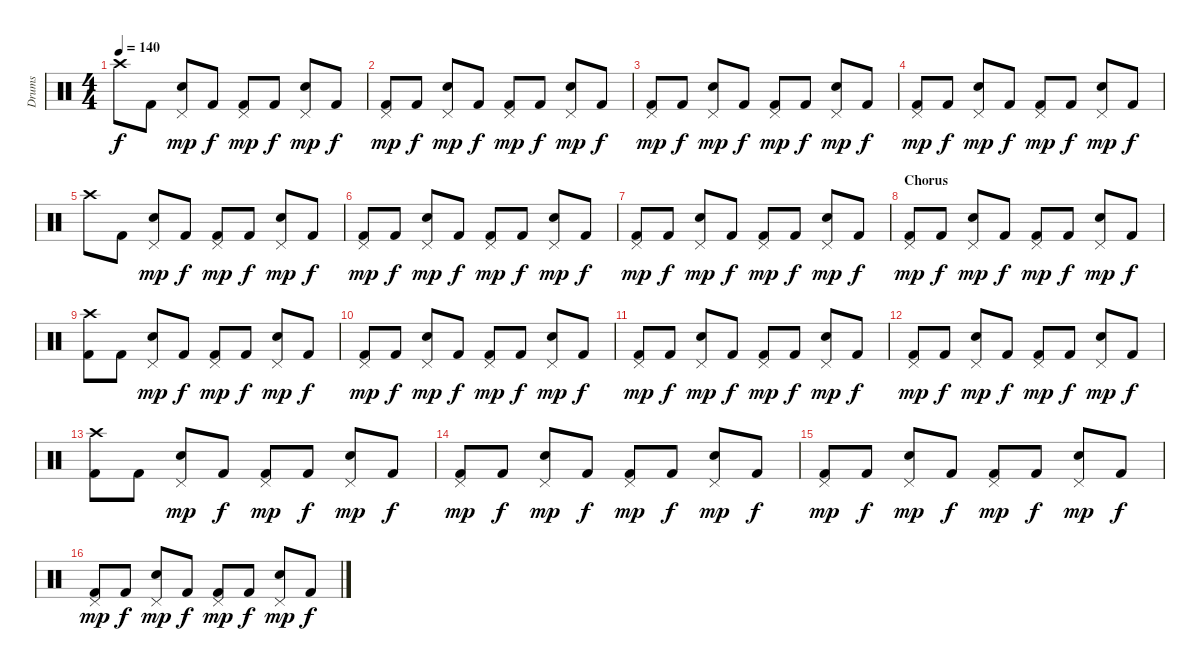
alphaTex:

\track ("Drums" "Drums") {instrument percussion}
\staff {score}
\articulation defaults
\ts (4 4)
\tempo 140
\clef neutral
\ks c "Crash high (hit)".8{dy f} "Kick (hit) 2".8
("Pedal Hi-Hat (hit)" "Snare (hit) 2").8{dy mp} "Kick (hit) 2".8{dy f} ("Pedal Hi-Hat (hit)" "Kick (hit) 2").8{dy mp} "Kick (hit) 2".8{dy f} ("Pedal Hi-Hat (hit)" "Snare (hit) 2").8{dy mp} "Kick (hit) 2".8{dy f} |
("Pedal Hi-Hat (hit)" "Kick (hit) 2").8{dy mp} "Kick (hit) 2".8{dy f} ("Pedal Hi-Hat (hit)" "Snare (hit) 2").8{dy mp} "Kick (hit) 2".8{dy f} ("Pedal Hi-Hat (hit)" "Kick (hit) 2").8{dy mp} "Kick (hit) 2".8{dy f} ("Pedal Hi-Hat (hit)" "Snare (hit) 2").8{dy mp} "Kick (hit) 2".8{dy f} |
("Pedal Hi-Hat (hit)" "Kick (hit) 2").8{dy mp} "Kick (hit) 2".8{dy f} ("Pedal Hi-Hat (hit)" "Snare (hit) 2").8{dy mp} "Kick (hit) 2".8{dy f} ("Pedal Hi-Hat (hit)" "Kick (hit) 2").8{dy mp} "Kick (hit) 2".8{dy f} ("Pedal Hi-Hat (hit)" "Snare (hit) 2").8{dy mp} "Kick (hit) 2".8{dy f} |
("Pedal Hi-Hat (hit)" "Kick (hit) 2").8{dy mp} "Kick (hit) 2".8{dy f} ("Pedal Hi-Hat (hit)" "Snare (hit) 2").8{dy mp} "Kick (hit) 2".8{dy f} ("Pedal Hi-Hat (hit)" "Kick (hit) 2").8{dy mp} "Kick (hit) 2".8{dy f} ("Pedal Hi-Hat (hit)" "Snare (hit) 2").8{dy mp} "Kick (hit) 2".8{dy f} |
"Crash high (hit)".8 "Kick (hit) 2".8 ("Pedal Hi-Hat (hit)" "Snare (hit) 2").8{dy mp} "Kick (hit) 2".8{dy f} ("Pedal Hi-Hat (hit)" "Kick (hit) 2").8{dy mp} "Kick (hit) 2".8{dy f} ("Pedal Hi-Hat (hit)" "Snare (hit) 2").8{dy mp} "Kick (hit) 2".8{dy f} |
("Pedal Hi-Hat (hit)" "Kick (hit) 2").8{dy mp} "Kick (hit) 2".8{dy f} ("Pedal Hi-Hat (hit)" "Snare (hit) 2").8{dy mp} "Kick (hit) 2".8{dy f} ("Pedal Hi-Hat (hit)" "Kick (hit) 2").8{dy mp} "Kick (hit) 2".8{dy f} ("Pedal Hi-Hat (hit)" "Snare (hit) 2").8{dy mp} "Kick (hit) 2".8{dy f} |
("Pedal Hi-Hat (hit)" "Kick (hit) 2").8{dy mp} "Kick (hit) 2".8{dy f} ("Pedal Hi-Hat (hit)" "Snare (hit) 2").8{dy mp} "Kick (hit) 2".8{dy f} ("Pedal Hi-Hat (hit)" "Kick (hit) 2").8{dy mp} "Kick (hit) 2".8{dy f} ("Pedal Hi-Hat (hit)" "Snare (hit) 2").8{dy mp} "Kick (hit) 2".8{dy f} |
\section ("" "Chorus ")
("Pedal Hi-Hat (hit)" "Kick (hit) 2").8{dy mp} "Kick (hit) 2".8{dy f} ("Pedal Hi-Hat (hit)" "Snare (hit) 2").8{dy mp} "Kick (hit) 2".8{dy f} ("Pedal Hi-Hat (hit)" "Kick (hit) 2").8{dy mp} "Kick (hit) 2".8{dy f} ("Pedal Hi-Hat (hit)" "Snare (hit) 2").8{dy mp} "Kick (hit) 2".8{dy f} |
("Crash high (hit)" "Kick (hit) 2").8 "Kick (hit) 2".8 ("Pedal Hi-Hat (hit)" "Snare (hit) 2").8{dy mp} "Kick (hit) 2".8{dy f} ("Pedal Hi-Hat (hit)" "Kick (hit) 2").8{dy mp} "Kick (hit) 2".8{dy f} ("Pedal Hi-Hat (hit)" "Snare (hit) 2").8{dy mp} "Kick (hit) 2".8{dy f} |
("Pedal Hi-Hat (hit)" "Kick (hit) 2").8{dy mp} "Kick (hit) 2".8{dy f} ("Pedal Hi-Hat (hit)" "Snare (hit) 2").8{dy mp} "Kick (hit) 2".8{dy f} ("Pedal Hi-Hat (hit)" "Kick (hit) 2").8{dy mp} "Kick (hit) 2".8{dy f} ("Pedal Hi-Hat (hit)" "Snare (hit) 2").8{dy mp} "Kick (hit) 2".8{dy f} |
("Pedal Hi-Hat (hit)" "Kick (hit) 2").8{dy mp} "Kick (hit) 2".8{dy f} ("Pedal Hi-Hat (hit)" "Snare (hit) 2").8{dy mp} "Kick (hit) 2".8{dy f} ("Pedal Hi-Hat (hit)" "Kick (hit) 2").8{dy mp} "Kick (hit) 2".8{dy f} ("Pedal Hi-Hat (hit)" "Snare (hit) 2").8{dy mp} "Kick (hit) 2".8{dy f} |
("Pedal Hi-Hat (hit)" "Kick (hit) 2").8{dy mp} "Kick (hit) 2".8{dy f} ("Pedal Hi-Hat (hit)" "Snare (hit) 2").8{dy mp} "Kick (hit) 2".8{dy f} ("Pedal Hi-Hat (hit)" "Kick (hit) 2").8{dy mp} "Kick (hit) 2".8{dy f} ("Pedal Hi-Hat (hit)" "Snare (hit) 2").8{dy mp} "Kick (hit) 2".8{dy f} |
("Crash high (hit)" "Kick (hit) 2").8 "Kick (hit) 2".8 ("Pedal Hi-Hat (hit)" "Snare (hit) 2").8{dy mp} "Kick (hit) 2".8{dy f} ("Pedal Hi-Hat (hit)" "Kick (hit) 2").8{dy mp} "Kick (hit) 2".8{dy f} ("Pedal Hi-Hat (hit)" "Snare (hit) 2").8{dy mp} "Kick (hit) 2".8{dy f} |
("Pedal Hi-Hat (hit)" "Kick (hit) 2").8{dy mp} "Kick (hit) 2".8{dy f} ("Pedal Hi-Hat (hit)" "Snare (hit) 2").8{dy mp} "Kick (hit) 2".8{dy f} ("Pedal Hi-Hat (hit)" "Kick (hit) 2").8{dy mp} "Kick (hit) 2".8{dy f} ("Pedal Hi-Hat (hit)" "Snare (hit) 2").8{dy mp} "Kick (hit) 2".8{dy f} |
("Pedal Hi-Hat (hit)" "Kick (hit) 2").8{dy mp} "Kick (hit) 2".8{dy f} ("Pedal Hi-Hat (hit)" "Snare (hit) 2").8{dy mp} "Kick (hit) 2".8{dy f} ("Pedal Hi-Hat (hit)" "Kick (hit) 2").8{dy mp} "Kick (hit) 2".8{dy f} ("Pedal Hi-Hat (hit)" "Snare (hit) 2").8{dy mp} "Kick (hit) 2".8{dy f} |
("Pedal Hi-Hat (hit)" "Kick (hit) 2").8{dy mp} "Kick (hit) 2".8{dy f} ("Pedal Hi-Hat (hit)" "Snare (hit) 2").8{dy mp} "Kick (hit) 2".8{dy f} ("Pedal Hi-Hat (hit)" "Kick (hit) 2").8{dy mp} "Kick (hit) 2".8{dy f} ("Pedal Hi-Hat (hit)" "Snare (hit) 2").8{dy mp} "Kick (hit) 2".8{dy f}
